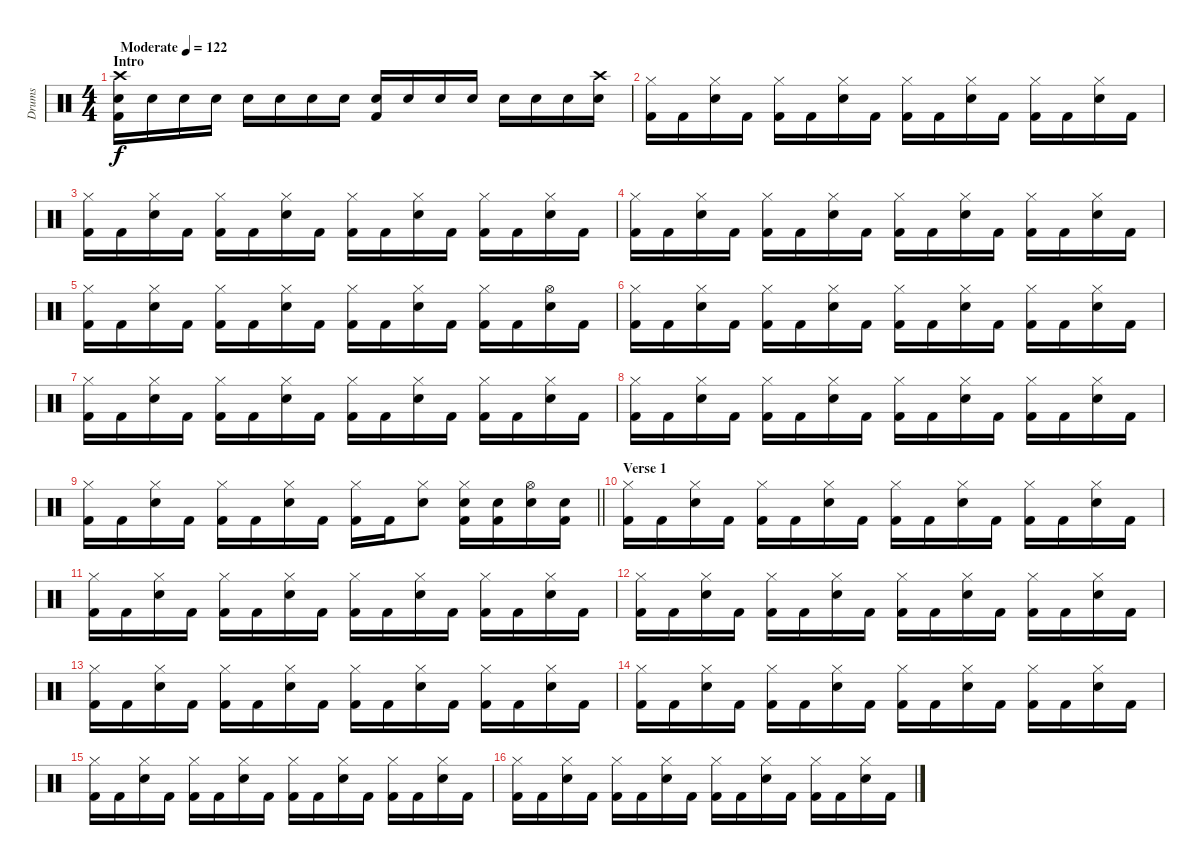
\track ("Drums" "Drums") {instrument percussion}
\staff {score}
\articulation defaults
\ts (4 4)
\section ("" "Intro")
\tempo (122 "Moderate")
\clef neutral
\ks c
("Crash high (hit)" "Snare (hit) 2" "Kick (hit) 2").16{dy f} "Electric Snare (hit)".16 "Electric Snare (hit)".16 "Electric Snare (hit)".16 "Electric Snare (hit)".16 "Electric Snare (hit)".16 "Electric Snare (hit)".16 "Electric Snare (hit)".16 ("Snare (hit) 2" "Kick (hit) 2").16 "Electric Snare (hit)".16 "Electric Snare (hit)".16 "Electric Snare (hit)".16 "Electric Snare (hit)".16 "Electric Snare (hit)".16 "Electric Snare (hit)".16 ("Crash high (hit)" "Electric Snare (hit)").16 |
("Hi-Hat (closed)" "Kick (hit) 2").16 "Kick (hit) 2".16 ("Hi-Hat (closed)" "Snare (hit) 2").16 "Kick (hit) 2".16 ("Hi-Hat (closed)" "Kick (hit) 2").16 "Kick (hit) 2".16 ("Hi-Hat (closed)" "Snare (hit) 2").16 "Kick (hit) 2".16 ("Hi-Hat (closed)" "Kick (hit) 2").16 "Kick (hit) 2".16 ("Hi-Hat (closed)" "Snare (hit) 2").16 "Kick (hit) 2".16 ("Hi-Hat (closed)" "Kick (hit) 2").16 "Kick (hit) 2".16 ("Hi-Hat (closed)" "Snare (hit) 2").16 "Kick (hit) 2".16 |
("Hi-Hat (closed)" "Kick (hit) 2").16 "Kick (hit) 2".16 ("Hi-Hat (closed)" "Snare (hit) 2").16 "Kick (hit) 2".16 ("Hi-Hat (closed)" "Kick (hit) 2").16 "Kick (hit) 2".16 ("Hi-Hat (closed)" "Snare (hit) 2").16 "Kick (hit) 2".16 ("Hi-Hat (closed)" "Kick (hit) 2").16 "Kick (hit) 2".16 ("Hi-Hat (closed)" "Snare (hit) 2").16 "Kick (hit) 2".16 ("Hi-Hat (closed)" "Kick (hit) 2").16 "Kick (hit) 2".16 ("Hi-Hat (closed)" "Snare (hit) 2").16 "Kick (hit) 2".16 |
("Hi-Hat (closed)" "Kick (hit) 2").16 "Kick (hit) 2".16 ("Hi-Hat (closed)" "Snare (hit) 2").16 "Kick (hit) 2".16 ("Hi-Hat (closed)" "Kick (hit) 2").16 "Kick (hit) 2".16 ("Hi-Hat (closed)" "Snare (hit) 2").16 "Kick (hit) 2".16 ("Hi-Hat (closed)" "Kick (hit) 2").16 "Kick (hit) 2".16 ("Hi-Hat (closed)" "Snare (hit) 2").16 "Kick (hit) 2".16 ("Hi-Hat (closed)" "Kick (hit) 2").16 "Kick (hit) 2".16 ("Hi-Hat (closed)" "Snare (hit) 2").16 "Kick (hit) 2".16 |
("Hi-Hat (closed)" "Kick (hit) 2").16 "Kick (hit) 2".16 ("Hi-Hat (closed)" "Snare (hit) 2").16 "Kick (hit) 2".16 ("Hi-Hat (closed)" "Kick (hit) 2").16 "Kick (hit) 2".16 ("Hi-Hat (closed)" "Snare (hit) 2").16 "Kick (hit) 2".16 ("Hi-Hat (closed)" "Kick (hit) 2").16 "Kick (hit) 2".16 ("Hi-Hat (closed)" "Snare (hit) 2").16 "Kick (hit) 2".16 ("Hi-Hat (closed)" "Kick (hit) 2").16 "Kick (hit) 2".16 ("Hi-Hat (open)" "Snare (hit) 2").16 "Kick (hit) 2".16 |
("Hi-Hat (closed)" "Kick (hit) 2").16 "Kick (hit) 2".16 ("Hi-Hat (closed)" "Snare (hit) 2").16 "Kick (hit) 2".16 ("Hi-Hat (closed)" "Kick (hit) 2").16 "Kick (hit) 2".16 ("Hi-Hat (closed)" "Snare (hit) 2").16 "Kick (hit) 2".16 ("Hi-Hat (closed)" "Kick (hit) 2").16 "Kick (hit) 2".16 ("Hi-Hat (closed)" "Snare (hit) 2").16 "Kick (hit) 2".16 ("Hi-Hat (closed)" "Kick (hit) 2").16 "Kick (hit) 2".16 ("Hi-Hat (closed)" "Snare (hit) 2").16 "Kick (hit) 2".16 |
("Hi-Hat (closed)" "Kick (hit) 2").16 "Kick (hit) 2".16 ("Hi-Hat (closed)" "Snare (hit) 2").16 "Kick (hit) 2".16 ("Hi-Hat (closed)" "Kick (hit) 2").16 "Kick (hit) 2".16 ("Hi-Hat (closed)" "Snare (hit) 2").16 "Kick (hit) 2".16 ("Hi-Hat (closed)" "Kick (hit) 2").16 "Kick (hit) 2".16 ("Hi-Hat (closed)" "Snare (hit) 2").16 "Kick (hit) 2".16 ("Hi-Hat (closed)" "Kick (hit) 2").16 "Kick (hit) 2".16 ("Hi-Hat (closed)" "Snare (hit) 2").16 "Kick (hit) 2".16 |
("Hi-Hat (closed)" "Kick (hit) 2").16 "Kick (hit) 2".16 ("Hi-Hat (closed)" "Snare (hit) 2").16 "Kick (hit) 2".16 ("Hi-Hat (closed)" "Kick (hit) 2").16 "Kick (hit) 2".16 ("Hi-Hat (closed)" "Snare (hit) 2").16 "Kick (hit) 2".16 ("Hi-Hat (closed)" "Kick (hit) 2").16 "Kick (hit) 2".16 ("Hi-Hat (closed)" "Snare (hit) 2").16 "Kick (hit) 2".16 ("Hi-Hat (closed)" "Kick (hit) 2").16 "Kick (hit) 2".16 ("Hi-Hat (closed)" "Snare (hit) 2").16 "Kick (hit) 2".16 |
\barLineRight lightlight
("Hi-Hat (closed)" "Kick (hit) 2").16 "Kick (hit) 2".16 ("Hi-Hat (closed)" "Snare (hit) 2").16 "Kick (hit) 2".16 ("Hi-Hat (closed)" "Kick (hit) 2").16 "Kick (hit) 2".16 ("Hi-Hat (closed)" "Snare (hit) 2").16 "Kick (hit) 2".16 ("Hi-Hat (closed)" "Kick (hit) 2").16 "Kick (hit) 2".16 ("Hi-Hat (closed)" "Snare (hit) 2").8 ("Hi-Hat (closed)" "Snare (hit) 2" "Kick (hit) 2").16 ("Snare (hit) 2" "Kick (hit) 2").16 ("Hi-Hat (open)" "Snare (hit) 2").16 ("Snare (hit) 2" "Kick (hit) 2").16 |
\section ("" "Verse 1")
("Hi-Hat (closed)" "Kick (hit) 2").16 "Kick (hit) 2".16 ("Hi-Hat (closed)" "Snare (hit) 2").16 "Kick (hit) 2".16 ("Hi-Hat (closed)" "Kick (hit) 2").16 "Kick (hit) 2".16 ("Hi-Hat (closed)" "Snare (hit) 2").16 "Kick (hit) 2".16 ("Hi-Hat (closed)" "Kick (hit) 2").16 "Kick (hit) 2".16 ("Hi-Hat (closed)" "Snare (hit) 2").16 "Kick (hit) 2".16 ("Hi-Hat (closed)" "Kick (hit) 2").16 "Kick (hit) 2".16 ("Hi-Hat (closed)" "Snare (hit) 2").16 "Kick (hit) 2".16 |
("Hi-Hat (closed)" "Kick (hit) 2").16 "Kick (hit) 2".16 ("Hi-Hat (closed)" "Snare (hit) 2").16 "Kick (hit) 2".16 ("Hi-Hat (closed)" "Kick (hit) 2").16 "Kick (hit) 2".16 ("Hi-Hat (closed)" "Snare (hit) 2").16 "Kick (hit) 2".16 ("Hi-Hat (closed)" "Kick (hit) 2").16 "Kick (hit) 2".16 ("Hi-Hat (closed)" "Snare (hit) 2").16 "Kick (hit) 2".16 ("Hi-Hat (closed)" "Kick (hit) 2").16 "Kick (hit) 2".16 ("Hi-Hat (closed)" "Snare (hit) 2").16 "Kick (hit) 2".16 |
("Hi-Hat (closed)" "Kick (hit) 2").16 "Kick (hit) 2".16 ("Hi-Hat (closed)" "Snare (hit) 2").16 "Kick (hit) 2".16 ("Hi-Hat (closed)" "Kick (hit) 2").16 "Kick (hit) 2".16 ("Hi-Hat (closed)" "Snare (hit) 2").16 "Kick (hit) 2".16 ("Hi-Hat (closed)" "Kick (hit) 2").16 "Kick (hit) 2".16 ("Hi-Hat (closed)" "Snare (hit) 2").16 "Kick (hit) 2".16 ("Hi-Hat (closed)" "Kick (hit) 2").16 "Kick (hit) 2".16 ("Hi-Hat (closed)" "Snare (hit) 2").16 "Kick (hit) 2".16 |
("Hi-Hat (closed)" "Kick (hit) 2").16 "Kick (hit) 2".16 ("Hi-Hat (closed)" "Snare (hit) 2").16 "Kick (hit) 2".16 ("Hi-Hat (closed)" "Kick (hit) 2").16 "Kick (hit) 2".16 ("Hi-Hat (closed)" "Snare (hit) 2").16 "Kick (hit) 2".16 ("Hi-Hat (closed)" "Kick (hit) 2").16 "Kick (hit) 2".16 ("Hi-Hat (closed)" "Snare (hit) 2").16 "Kick (hit) 2".16 ("Hi-Hat (closed)" "Kick (hit) 2").16 "Kick (hit) 2".16 ("Hi-Hat (closed)" "Snare (hit) 2").16 "Kick (hit) 2".16 |
("Hi-Hat (closed)" "Kick (hit) 2").16 "Kick (hit) 2".16 ("Hi-Hat (closed)" "Snare (hit) 2").16 "Kick (hit) 2".16 ("Hi-Hat (closed)" "Kick (hit) 2").16 "Kick (hit) 2".16 ("Hi-Hat (closed)" "Snare (hit) 2").16 "Kick (hit) 2".16 ("Hi-Hat (closed)" "Kick (hit) 2").16 "Kick (hit) 2".16 ("Hi-Hat (closed)" "Snare (hit) 2").16 "Kick (hit) 2".16 ("Hi-Hat (closed)" "Kick (hit) 2").16 "Kick (hit) 2".16 ("Hi-Hat (closed)" "Snare (hit) 2").16 "Kick (hit) 2".16 |
("Hi-Hat (closed)" "Kick (hit) 2").16 "Kick (hit) 2".16 ("Hi-Hat (closed)" "Snare (hit) 2").16 "Kick (hit) 2".16 ("Hi-Hat (closed)" "Kick (hit) 2").16 "Kick (hit) 2".16 ("Hi-Hat (closed)" "Snare (hit) 2").16 "Kick (hit) 2".16 ("Hi-Hat (closed)" "Kick (hit) 2").16 "Kick (hit) 2".16 ("Hi-Hat (closed)" "Snare (hit) 2").16 "Kick (hit) 2".16 ("Hi-Hat (closed)" "Kick (hit) 2").16 "Kick (hit) 2".16 ("Hi-Hat (closed)" "Snare (hit) 2").16 "Kick (hit) 2".16 |
("Hi-Hat (closed)" "Kick (hit) 2").16 "Kick (hit) 2".16 ("Hi-Hat (closed)" "Snare (hit) 2").16 "Kick (hit) 2".16 ("Hi-Hat (closed)" "Kick (hit) 2").16 "Kick (hit) 2".16 ("Hi-Hat (closed)" "Snare (hit) 2").16 "Kick (hit) 2".16 ("Hi-Hat (closed)" "Kick (hit) 2").16 "Kick (hit) 2".16 ("Hi-Hat (closed)" "Snare (hit) 2").16 "Kick (hit) 2".16 ("Hi-Hat (closed)" "Kick (hit) 2").16 "Kick (hit) 2".16 ("Hi-Hat (closed)" "Snare (hit) 2").16 "Kick (hit) 2".16
